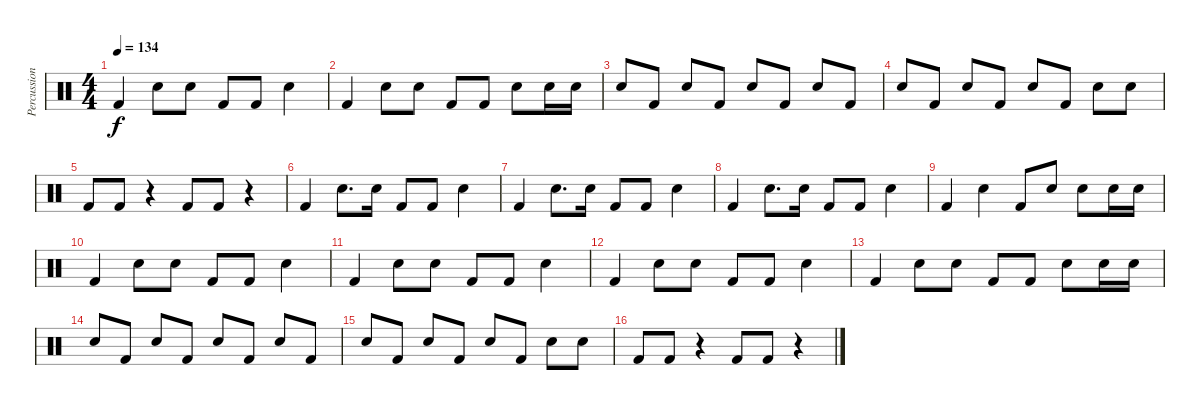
\track ("Percussion" "Percussion") {instrument percussion}
\staff {score}
\articulation defaults
\ts (4 4)
\tempo 134
\clef neutral
\ks c "Kick (hit) 2".4{dy f} "Electric Snare (hit)".8 "Electric Snare (hit)".8 "Kick (hit) 2".8 "Kick (hit) 2".8 "Electric Snare (hit)".4
|
"Kick (hit) 2".4 "Electric Snare (hit)".8 "Electric Snare (hit)".8 "Kick (hit) 2".8 "Kick (hit) 2".8 "Electric Snare (hit)".8 "Electric Snare (hit)".16 "Electric Snare (hit)".16 |
"Electric Snare (hit)".8 "Kick (hit) 2".8 "Electric Snare (hit)".8 "Kick (hit) 2".8 "Electric Snare (hit)".8 "Kick (hit) 2".8 "Electric Snare (hit)".8 "Kick (hit) 2".8 |
"Electric Snare (hit)".8 "Kick (hit) 2".8 "Electric Snare (hit)".8 "Kick (hit) 2".8 "Electric Snare (hit)".8 "Kick (hit) 2".8 "Electric Snare (hit)".8 "Electric Snare (hit)".8 |
"Kick (hit) 2".8 "Kick (hit) 2".8 r.4 "Kick (hit) 2".8 "Kick (hit) 2".8 r.4 |
"Kick (hit) 2".4 "Electric Snare (hit)".8{d} "Electric Snare (hit)".16 "Kick (hit) 2".8 "Kick (hit) 2".8 "Electric Snare (hit)".4 |
"Kick (hit) 2".4 "Electric Snare (hit)".8{d} "Electric Snare (hit)".16 "Kick (hit) 2".8 "Kick (hit) 2".8 "Electric Snare (hit)".4 |
"Kick (hit) 2".4 "Electric Snare (hit)".8{d} "Electric Snare (hit)".16 "Kick (hit) 2".8 "Kick (hit) 2".8 "Electric Snare (hit)".4 |
"Kick (hit) 2".4 "Electric Snare (hit)".4 "Kick (hit) 2".8 "Electric Snare (hit)".8 "Electric Snare (hit)".8 "Electric Snare (hit)".16 "Electric Snare (hit)".16 |
"Kick (hit) 2".4 "Electric Snare (hit)".8 "Electric Snare (hit)".8 "Kick (hit) 2".8 "Kick (hit) 2".8 "Electric Snare (hit)".4 |
"Kick (hit) 2".4 "Electric Snare (hit)".8 "Electric Snare (hit)".8 "Kick (hit) 2".8 "Kick (hit) 2".8 "Electric Snare (hit)".4 |
"Kick (hit) 2".4 "Electric Snare (hit)".8 "Electric Snare (hit)".8 "Kick (hit) 2".8 "Kick (hit) 2".8 "Electric Snare (hit)".4 |
"Kick (hit) 2".4 "Electric Snare (hit)".8 "Electric Snare (hit)".8 "Kick (hit) 2".8 "Kick (hit) 2".8 "Electric Snare (hit)".8 "Electric Snare (hit)".16 "Electric Snare (hit)".16 |
"Electric Snare (hit)".8 "Kick (hit) 2".8 "Electric Snare (hit)".8 "Kick (hit) 2".8 "Electric Snare (hit)".8 "Kick (hit) 2".8 "Electric Snare (hit)".8 "Kick (hit) 2".8 |
"Electric Snare (hit)".8 "Kick (hit) 2".8 "Electric Snare (hit)".8 "Kick (hit) 2".8 "Electric Snare (hit)".8 "Kick (hit) 2".8 "Electric Snare (hit)".8 "Electric Snare (hit)".8 |
"Kick (hit) 2".8 "Kick (hit) 2".8 r.4 "Kick (hit) 2".8 "Kick (hit) 2".8 r.4
